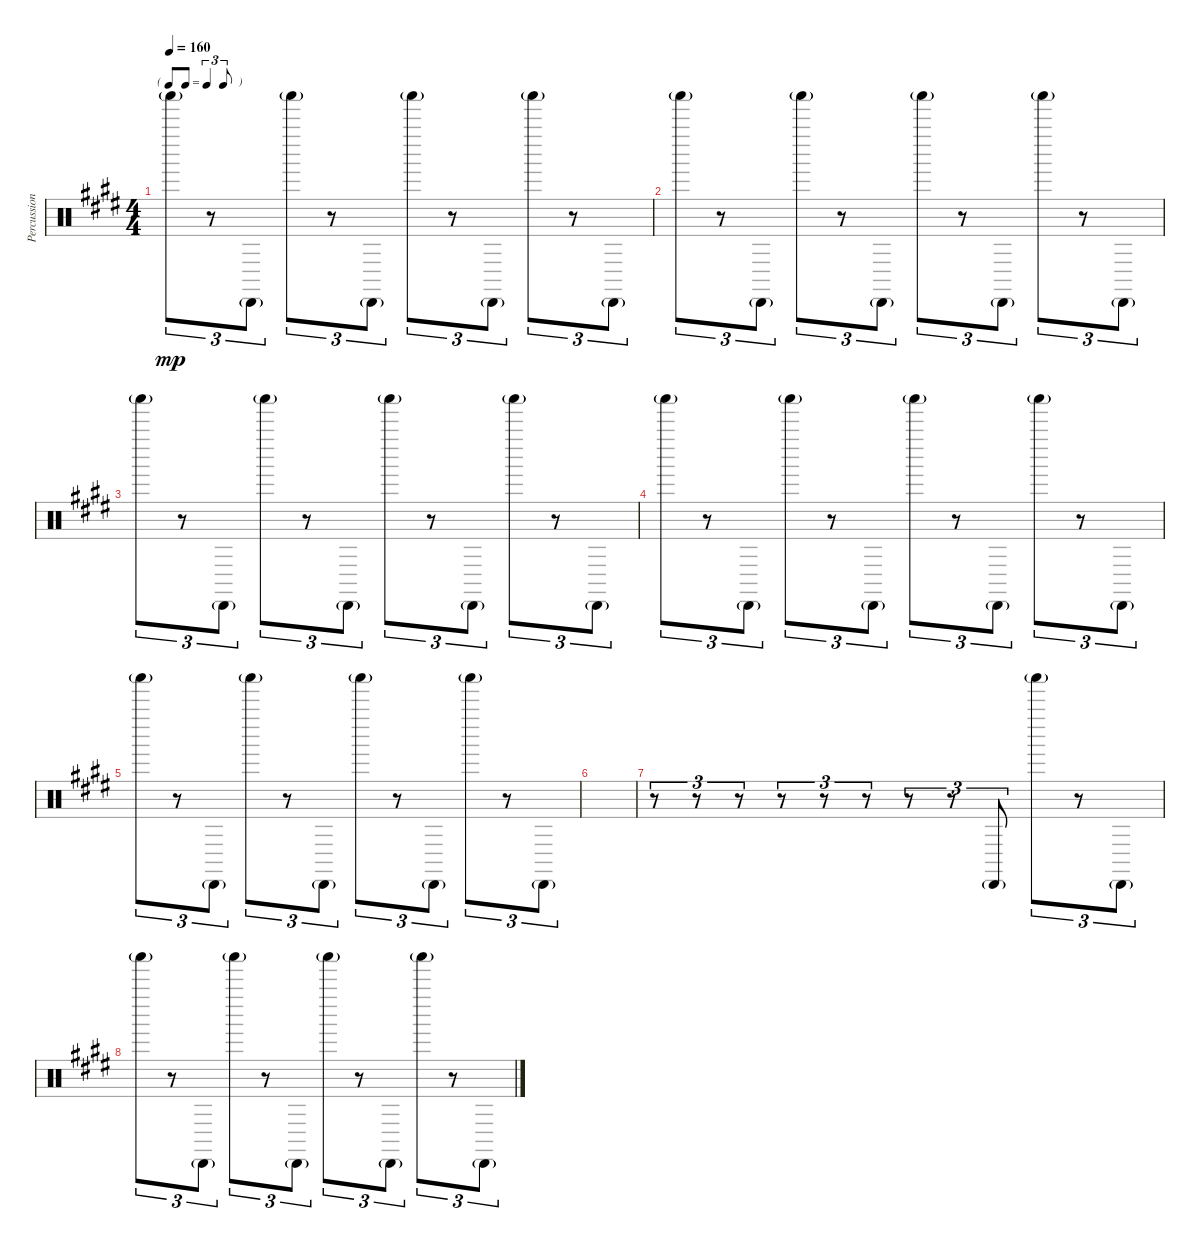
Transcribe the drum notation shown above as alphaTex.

\track ("Percussion" "Percussion") {instrument percussion}
\staff {score}
\articulation defaults
\ts (4 4)
\tf triplet8th
\tempo 160
\clef neutral
\ks e "Shaker (hit)"{g}.8{tu (3 2) dy mp}
r.8{tu (3 2)} "Cabasa (hit)"{g}.8{tu (3 2)} "Shaker (hit)"{g}.8{tu (3 2)} r.8{tu (3 2)} "Cabasa (hit)"{g}.8{tu (3 2)} "Shaker (hit)"{g}.8{tu (3 2)} r.8{tu (3 2)} "Cabasa (hit)"{g}.8{tu (3 2)} "Shaker (hit)"{g}.8{tu (3 2)} r.8{tu (3 2)} "Cabasa (hit)"{g}.8{tu (3 2)} |
"Shaker (hit)"{g}.8{tu (3 2)} r.8{tu (3 2)} "Cabasa (hit)"{g}.8{tu (3 2)} "Shaker (hit)"{g}.8{tu (3 2)} r.8{tu (3 2)} "Cabasa (hit)"{g}.8{tu (3 2)} "Shaker (hit)"{g}.8{tu (3 2)} r.8{tu (3 2)} "Cabasa (hit)"{g}.8{tu (3 2)} "Shaker (hit)"{g}.8{tu (3 2)} r.8{tu (3 2)} "Cabasa (hit)"{g}.8{tu (3 2)} |
"Shaker (hit)"{g}.8{tu (3 2)} r.8{tu (3 2)} "Cabasa (hit)"{g}.8{tu (3 2)} "Shaker (hit)"{g}.8{tu (3 2)} r.8{tu (3 2)} "Cabasa (hit)"{g}.8{tu (3 2)} "Shaker (hit)"{g}.8{tu (3 2)} r.8{tu (3 2)} "Cabasa (hit)"{g}.8{tu (3 2)} "Shaker (hit)"{g}.8{tu (3 2)} r.8{tu (3 2)} "Cabasa (hit)"{g}.8{tu (3 2)} |
"Shaker (hit)"{g}.8{tu (3 2)} r.8{tu (3 2)} "Cabasa (hit)"{g}.8{tu (3 2)} "Shaker (hit)"{g}.8{tu (3 2)} r.8{tu (3 2)} "Cabasa (hit)"{g}.8{tu (3 2)} "Shaker (hit)"{g}.8{tu (3 2)} r.8{tu (3 2)} "Cabasa (hit)"{g}.8{tu (3 2)} "Shaker (hit)"{g}.8{tu (3 2)} r.8{tu (3 2)} "Cabasa (hit)"{g}.8{tu (3 2)} |
"Shaker (hit)"{g}.8{tu (3 2)} r.8{tu (3 2)} "Cabasa (hit)"{g}.8{tu (3 2)} "Shaker (hit)"{g}.8{tu (3 2)} r.8{tu (3 2)} "Cabasa (hit)"{g}.8{tu (3 2)} "Shaker (hit)"{g}.8{tu (3 2)} r.8{tu (3 2)} "Cabasa (hit)"{g}.8{tu (3 2)} "Shaker (hit)"{g}.8{tu (3 2)} r.8{tu (3 2)} "Cabasa (hit)"{g}.8{tu (3 2)} |
|
r.8{tu (3 2)} r.8{tu (3 2)} r.8{tu (3 2)} r.8{tu (3 2)} r.8{tu (3 2)} r.8{tu (3 2)} r.8{tu (3 2)} r.8{tu (3 2)} "Cabasa (hit)"{g}.8{tu (3 2)} "Shaker (hit)"{g}.8{tu (3 2)} r.8{tu (3 2)} "Cabasa (hit)"{g}.8{tu (3 2)} |
"Shaker (hit)"{g}.8{tu (3 2)} r.8{tu (3 2)} "Cabasa (hit)"{g}.8{tu (3 2)} "Shaker (hit)"{g}.8{tu (3 2)} r.8{tu (3 2)} "Cabasa (hit)"{g}.8{tu (3 2)} "Shaker (hit)"{g}.8{tu (3 2)} r.8{tu (3 2)} "Cabasa (hit)"{g}.8{tu (3 2)} "Shaker (hit)"{g}.8{tu (3 2)} r.8{tu (3 2)} "Cabasa (hit)"{g}.8{tu (3 2)}
